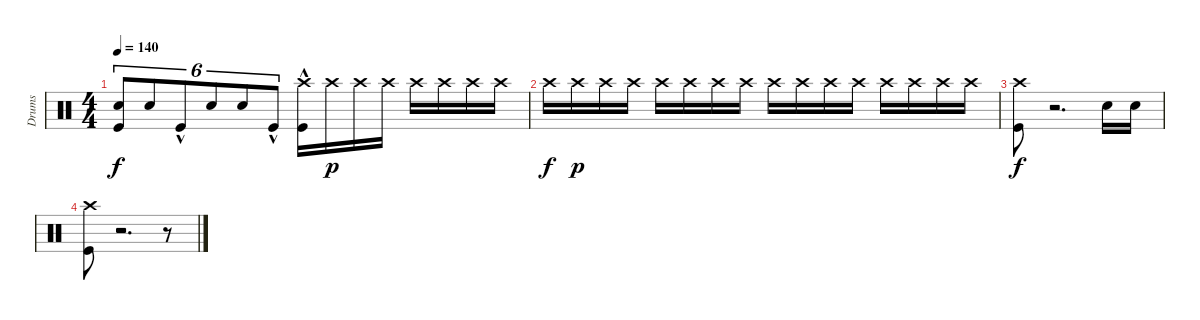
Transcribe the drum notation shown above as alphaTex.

\track ("Drums" "Drums") {instrument percussion}
\staff {score}
\articulation defaults
\ts (4 4)
\tempo 140
\clef neutral
\ks c
("Kick (hit)" "Electric Snare (hit)").8{tu (6 4) dy f} "Electric Snare (hit)".8{tu (6 4)} "Kick (hit)"{hac}.8{tu (6 4)} "Electric Snare (hit)".8{tu (6 4)} "Electric Snare (hit)".8{tu (6 4)} "Kick (hit)"{hac}.8{tu (6 4)} ("Kick (hit)"{hac} "Crash high (hit)").16 "Crash high (hit)".16{dy p} "Crash high (hit)".16 "Crash high (hit)".16 "Crash high (hit)".16 "Crash high (hit)".16 "Crash high (hit)".16 "Crash high (hit)".16 |
"Crash high (hit)".16{dy f} "Crash high (hit)".16{dy p} "Crash high (hit)".16 "Crash high (hit)".16 "Crash high (hit)".16 "Crash high (hit)".16 "Crash high (hit)".16 "Crash high (hit)".16 "Crash high (hit)".16 "Crash high (hit)".16 "Crash high (hit)".16 "Crash high (hit)".16 "Crash high (hit)".16 "Crash high (hit)".16 "Crash high (hit)".16 "Crash high (hit)".16 |
("Kick (hit)" "Crash high (hit)").8{dy f} r.2{d} "Electric Snare (hit)".16 "Electric Snare (hit)".16 |
("Kick (hit)" "Crash high (hit)").8 r.2{d} r.8
